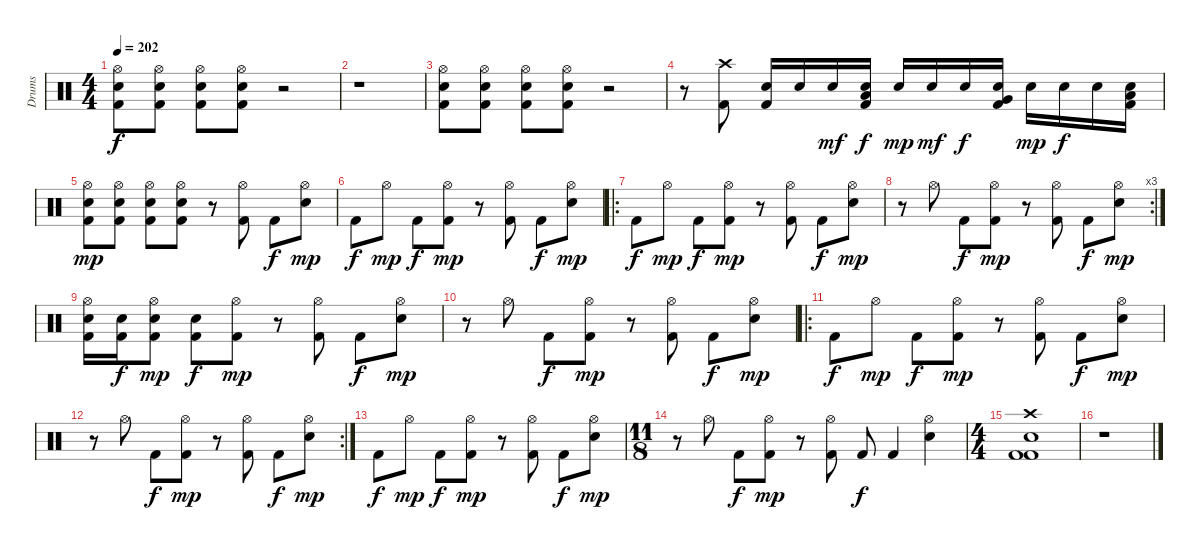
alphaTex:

\track ("Drums" "Drums") {instrument percussion}
\staff {score}
\articulation defaults
\ts (4 4)
\tempo 202
\clef neutral
\ks c
("Hi-Hat (open)" "Electric Snare (hit)" "Kick (hit) 2").8{dy f} ("Hi-Hat (open)" "Electric Snare (hit)" "Kick (hit) 2").8 ("Hi-Hat (open)" "Electric Snare (hit)" "Kick (hit) 2").8 ("Hi-Hat (open)" "Electric Snare (hit)" "Kick (hit) 2").8 r.2 |
r.1 |
("Hi-Hat (open)" "Electric Snare (hit)" "Kick (hit) 2").8 ("Hi-Hat (open)" "Electric Snare (hit)" "Kick (hit) 2").8 ("Hi-Hat (open)" "Electric Snare (hit)" "Kick (hit) 2").8 ("Hi-Hat (open)" "Electric Snare (hit)" "Kick (hit) 2").8 r.2 |
r.8 ("Crash high (hit)" "Kick (hit) 2").8 ("Electric Snare (hit)" "Kick (hit) 2").16 "Electric Snare (hit)".16 "Electric Snare (hit)".16{dy mf} ("Low Tom (hit)" "Electric Snare (hit)" "Kick (hit) 2").16{dy f} "Electric Snare (hit)".16{dy mp} "Electric Snare (hit)".16{dy mf} "Electric Snare (hit)".16{dy f} ("Very Low Tom (hit)" "Electric Snare (hit)" "Kick (hit) 2").16 "Electric Snare (hit)".16{dy mp} "Electric Snare (hit)".16{dy f} "Electric Snare (hit)".16 ("Low Floor Tom (hit)" "Electric Snare (hit)" "Kick (hit) 2").16 |
("Hi-Hat (open)" "Electric Snare (hit)" "Kick (hit) 2").8{dy mp} ("Hi-Hat (open)" "Electric Snare (hit)" "Kick (hit) 2").8 ("Hi-Hat (open)" "Electric Snare (hit)" "Kick (hit) 2").8 ("Hi-Hat (open)" "Electric Snare (hit)" "Kick (hit) 2").8 r.8 ("Hi-Hat (open)" "Kick (hit) 2").8 "Kick (hit) 2".8{dy f} ("Hi-Hat (open)" "Electric Snare (hit)").8{dy mp} |
"Kick (hit) 2".8{dy f} "Hi-Hat (open)".8{dy mp} "Kick (hit) 2".8{dy f} ("Hi-Hat (open)" "Kick (hit) 2").8{dy mp} r.8 ("Hi-Hat (open)" "Kick (hit) 2").8 "Kick (hit) 2".8{dy f} ("Hi-Hat (open)" "Electric Snare (hit)").8{dy mp} |
\ro "Kick (hit) 2".8{dy f} "Hi-Hat (open)".8{dy mp} "Kick (hit) 2".8{dy f}
("Hi-Hat (open)" "Kick (hit) 2").8{dy mp} r.8 ("Hi-Hat (open)" "Kick (hit) 2").8 "Kick (hit) 2".8{dy f} ("Hi-Hat (open)" "Electric Snare (hit)").8{dy mp} |
\rc 3
r.8 "Hi-Hat (open)".8 "Kick (hit) 2".8{dy f} ("Hi-Hat (open)" "Kick (hit) 2").8{dy mp} r.8 ("Hi-Hat (open)" "Kick (hit) 2").8 "Kick (hit) 2".8{dy f} ("Hi-Hat (open)" "Electric Snare (hit)").8{dy mp} |
("Hi-Hat (open)" "Electric Snare (hit)" "Kick (hit) 2").16 ("Electric Snare (hit)" "Kick (hit) 2").16{dy f} ("Hi-Hat (open)" "Electric Snare (hit)" "Kick (hit) 2").8{dy mp} ("Electric Snare (hit)" "Kick (hit) 2").8{dy f} ("Hi-Hat (open)" "Kick (hit) 2").8{dy mp} r.8 ("Hi-Hat (open)" "Kick (hit) 2").8 "Kick (hit) 2".8{dy f} ("Hi-Hat (open)" "Electric Snare (hit)").8{dy mp} |
r.8 "Hi-Hat (open)".8 "Kick (hit) 2".8{dy f} ("Hi-Hat (open)" "Kick (hit) 2").8{dy mp} r.8 ("Hi-Hat (open)" "Kick (hit) 2").8 "Kick (hit) 2".8{dy f} ("Hi-Hat (open)" "Electric Snare (hit)").8{dy mp} |
\ro "Kick (hit) 2".8{dy f} "Hi-Hat (open)".8{dy mp} "Kick (hit) 2".8{dy f}
("Hi-Hat (open)" "Kick (hit) 2").8{dy mp} r.8 ("Hi-Hat (open)" "Kick (hit) 2").8 "Kick (hit) 2".8{dy f} ("Hi-Hat (open)" "Electric Snare (hit)").8{dy mp} |
\rc 2
r.8 "Hi-Hat (open)".8 "Kick (hit) 2".8{dy f} ("Hi-Hat (open)" "Kick (hit) 2").8{dy mp} r.8 ("Hi-Hat (open)" "Kick (hit) 2").8 "Kick (hit) 2".8{dy f} ("Hi-Hat (open)" "Electric Snare (hit)").8{dy mp} |
"Kick (hit) 2".8{dy f} "Hi-Hat (open)".8{dy mp} "Kick (hit) 2".8{dy f} ("Hi-Hat (open)" "Kick (hit) 2").8{dy mp} r.8 ("Hi-Hat (open)" "Kick (hit) 2").8 "Kick (hit) 2".8{dy f} ("Hi-Hat (open)" "Electric Snare (hit)").8{dy mp} |
\ts (11 8)
r.8 "Hi-Hat (open)".8 "Kick (hit) 2".8{dy f} ("Hi-Hat (open)" "Kick (hit) 2").8{dy mp} r.8 ("Hi-Hat (open)" "Kick (hit) 2").8 "Kick (hit) 2".8{dy f} "Kick (hit) 2".4 ("Hi-Hat (open)" "Electric Snare (hit)").4 |
\ts (4 4)
("Crash high (hit)" "Electric Snare (hit)" "Kick (hit) 2" "Kick (hit) 2").1 |
r.1
